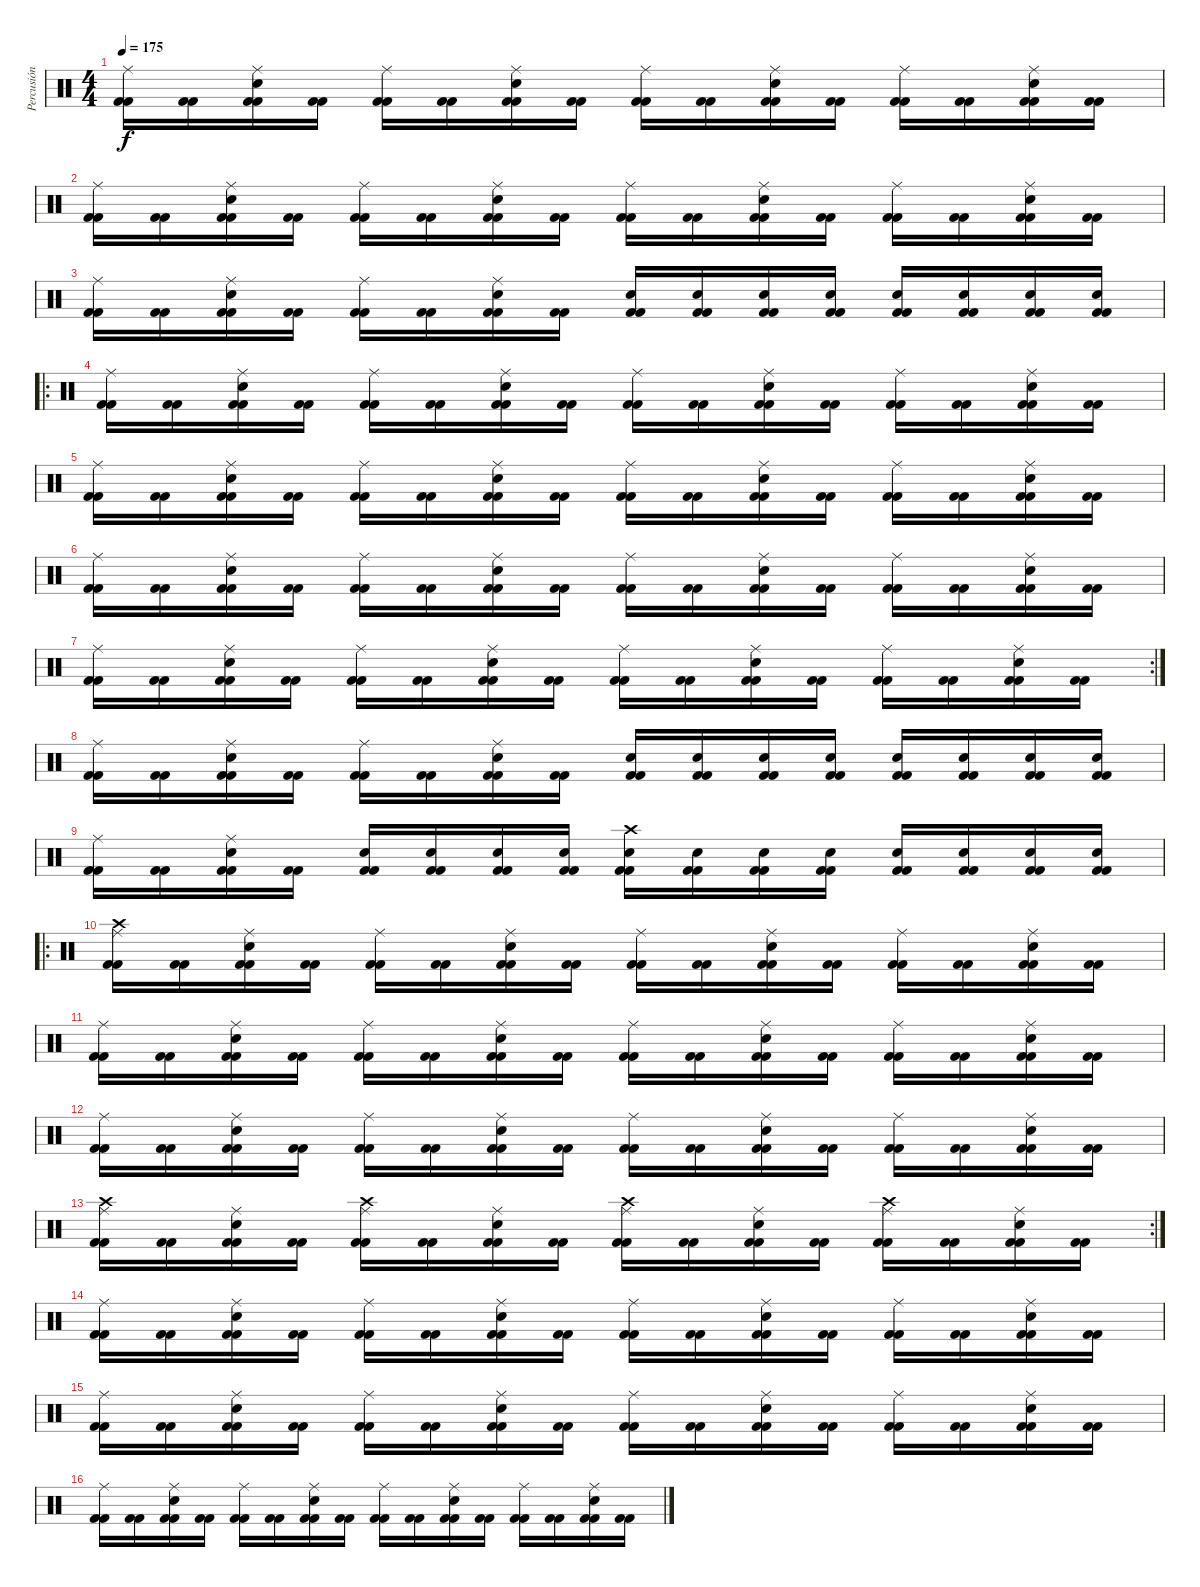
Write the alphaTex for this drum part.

\track ("Percusión" "Percusión") {instrument percussion}
\staff {score}
\articulation defaults
\ts (4 4)
\tempo 175
\clef neutral
\ks c
("Kick (hit) 2" "Kick (hit) 2" "Ride (middle)").16{dy f} ("Kick (hit) 2" "Kick (hit) 2").16 ("Kick (hit) 2" "Kick (hit) 2" "Electric Snare (hit)" "Ride (middle)").16 ("Kick (hit) 2" "Kick (hit) 2").16 ("Kick (hit) 2" "Kick (hit) 2" "Ride (middle)").16 ("Kick (hit) 2" "Kick (hit) 2").16 ("Kick (hit) 2" "Kick (hit) 2" "Electric Snare (hit)" "Ride (middle)").16 ("Kick (hit) 2" "Kick (hit) 2").16 ("Kick (hit) 2" "Kick (hit) 2" "Ride (middle)").16 ("Kick (hit) 2" "Kick (hit) 2").16 ("Kick (hit) 2" "Kick (hit) 2" "Electric Snare (hit)" "Ride (middle)").16 ("Kick (hit) 2" "Kick (hit) 2").16 ("Kick (hit) 2" "Kick (hit) 2" "Ride (middle)").16 ("Kick (hit) 2" "Kick (hit) 2").16 ("Kick (hit) 2" "Kick (hit) 2" "Electric Snare (hit)" "Ride (middle)").16 ("Kick (hit) 2" "Kick (hit) 2").16 |
("Kick (hit) 2" "Kick (hit) 2" "Ride (middle)").16 ("Kick (hit) 2" "Kick (hit) 2").16 ("Kick (hit) 2" "Kick (hit) 2" "Electric Snare (hit)" "Ride (middle)").16 ("Kick (hit) 2" "Kick (hit) 2").16 ("Kick (hit) 2" "Kick (hit) 2" "Ride (middle)").16 ("Kick (hit) 2" "Kick (hit) 2").16 ("Kick (hit) 2" "Kick (hit) 2" "Electric Snare (hit)" "Ride (middle)").16 ("Kick (hit) 2" "Kick (hit) 2").16 ("Kick (hit) 2" "Kick (hit) 2" "Ride (middle)").16 ("Kick (hit) 2" "Kick (hit) 2").16 ("Kick (hit) 2" "Kick (hit) 2" "Electric Snare (hit)" "Ride (middle)").16 ("Kick (hit) 2" "Kick (hit) 2").16 ("Kick (hit) 2" "Kick (hit) 2" "Ride (middle)").16 ("Kick (hit) 2" "Kick (hit) 2").16 ("Kick (hit) 2" "Kick (hit) 2" "Electric Snare (hit)" "Ride (middle)").16 ("Kick (hit) 2" "Kick (hit) 2").16 |
("Kick (hit) 2" "Kick (hit) 2" "Ride (middle)").16 ("Kick (hit) 2" "Kick (hit) 2").16 ("Kick (hit) 2" "Kick (hit) 2" "Electric Snare (hit)" "Ride (middle)").16 ("Kick (hit) 2" "Kick (hit) 2").16 ("Kick (hit) 2" "Kick (hit) 2" "Ride (middle)").16 ("Kick (hit) 2" "Kick (hit) 2").16 ("Kick (hit) 2" "Kick (hit) 2" "Electric Snare (hit)" "Ride (middle)").16 ("Kick (hit) 2" "Kick (hit) 2").16 ("Kick (hit) 2" "Kick (hit) 2" "Electric Snare (hit)").16 ("Kick (hit) 2" "Kick (hit) 2" "Electric Snare (hit)").16 ("Kick (hit) 2" "Kick (hit) 2" "Electric Snare (hit)").16 ("Kick (hit) 2" "Kick (hit) 2" "Electric Snare (hit)").16 ("Kick (hit) 2" "Kick (hit) 2" "Electric Snare (hit)").16 ("Kick (hit) 2" "Kick (hit) 2" "Electric Snare (hit)").16 ("Kick (hit) 2" "Kick (hit) 2" "Electric Snare (hit)").16 ("Kick (hit) 2" "Kick (hit) 2" "Electric Snare (hit)").16 |
\ro
("Kick (hit) 2" "Kick (hit) 2" "Ride (middle)").16 ("Kick (hit) 2" "Kick (hit) 2").16 ("Kick (hit) 2" "Kick (hit) 2" "Electric Snare (hit)" "Ride (middle)").16 ("Kick (hit) 2" "Kick (hit) 2").16 ("Kick (hit) 2" "Kick (hit) 2" "Ride (middle)").16 ("Kick (hit) 2" "Kick (hit) 2").16 ("Kick (hit) 2" "Kick (hit) 2" "Electric Snare (hit)" "Ride (middle)").16 ("Kick (hit) 2" "Kick (hit) 2").16 ("Kick (hit) 2" "Kick (hit) 2" "Ride (middle)").16 ("Kick (hit) 2" "Kick (hit) 2").16 ("Kick (hit) 2" "Kick (hit) 2" "Electric Snare (hit)" "Ride (middle)").16 ("Kick (hit) 2" "Kick (hit) 2").16 ("Kick (hit) 2" "Kick (hit) 2" "Ride (middle)").16 ("Kick (hit) 2" "Kick (hit) 2").16 ("Kick (hit) 2" "Kick (hit) 2" "Electric Snare (hit)" "Ride (middle)").16 ("Kick (hit) 2" "Kick (hit) 2").16 |
("Kick (hit) 2" "Kick (hit) 2" "Ride (middle)").16 ("Kick (hit) 2" "Kick (hit) 2").16 ("Kick (hit) 2" "Kick (hit) 2" "Electric Snare (hit)" "Ride (middle)").16 ("Kick (hit) 2" "Kick (hit) 2").16 ("Kick (hit) 2" "Kick (hit) 2" "Ride (middle)").16 ("Kick (hit) 2" "Kick (hit) 2").16 ("Kick (hit) 2" "Kick (hit) 2" "Electric Snare (hit)" "Ride (middle)").16 ("Kick (hit) 2" "Kick (hit) 2").16 ("Kick (hit) 2" "Kick (hit) 2" "Ride (middle)").16 ("Kick (hit) 2" "Kick (hit) 2").16 ("Kick (hit) 2" "Kick (hit) 2" "Electric Snare (hit)" "Ride (middle)").16 ("Kick (hit) 2" "Kick (hit) 2").16 ("Kick (hit) 2" "Kick (hit) 2" "Ride (middle)").16 ("Kick (hit) 2" "Kick (hit) 2").16 ("Kick (hit) 2" "Kick (hit) 2" "Electric Snare (hit)" "Ride (middle)").16 ("Kick (hit) 2" "Kick (hit) 2").16 |
("Kick (hit) 2" "Kick (hit) 2" "Ride (middle)").16 ("Kick (hit) 2" "Kick (hit) 2").16 ("Kick (hit) 2" "Kick (hit) 2" "Electric Snare (hit)" "Ride (middle)").16 ("Kick (hit) 2" "Kick (hit) 2").16 ("Kick (hit) 2" "Kick (hit) 2" "Ride (middle)").16 ("Kick (hit) 2" "Kick (hit) 2").16 ("Kick (hit) 2" "Kick (hit) 2" "Electric Snare (hit)" "Ride (middle)").16 ("Kick (hit) 2" "Kick (hit) 2").16 ("Kick (hit) 2" "Kick (hit) 2" "Ride (middle)").16 ("Kick (hit) 2" "Kick (hit) 2").16 ("Kick (hit) 2" "Kick (hit) 2" "Electric Snare (hit)" "Ride (middle)").16 ("Kick (hit) 2" "Kick (hit) 2").16 ("Kick (hit) 2" "Kick (hit) 2" "Ride (middle)").16 ("Kick (hit) 2" "Kick (hit) 2").16 ("Kick (hit) 2" "Kick (hit) 2" "Electric Snare (hit)" "Ride (middle)").16 ("Kick (hit) 2" "Kick (hit) 2").16 |
\rc 2
("Kick (hit) 2" "Kick (hit) 2" "Ride (middle)").16 ("Kick (hit) 2" "Kick (hit) 2").16 ("Kick (hit) 2" "Kick (hit) 2" "Electric Snare (hit)" "Ride (middle)").16 ("Kick (hit) 2" "Kick (hit) 2").16 ("Kick (hit) 2" "Kick (hit) 2" "Ride (middle)").16 ("Kick (hit) 2" "Kick (hit) 2").16 ("Kick (hit) 2" "Kick (hit) 2" "Electric Snare (hit)" "Ride (middle)").16 ("Kick (hit) 2" "Kick (hit) 2").16 ("Kick (hit) 2" "Kick (hit) 2" "Ride (middle)").16 ("Kick (hit) 2" "Kick (hit) 2").16 ("Kick (hit) 2" "Kick (hit) 2" "Electric Snare (hit)" "Ride (middle)").16 ("Kick (hit) 2" "Kick (hit) 2").16 ("Kick (hit) 2" "Kick (hit) 2" "Ride (middle)").16 ("Kick (hit) 2" "Kick (hit) 2").16 ("Kick (hit) 2" "Kick (hit) 2" "Electric Snare (hit)" "Ride (middle)").16 ("Kick (hit) 2" "Kick (hit) 2").16 |
("Kick (hit) 2" "Kick (hit) 2" "Ride (middle)").16 ("Kick (hit) 2" "Kick (hit) 2").16 ("Kick (hit) 2" "Kick (hit) 2" "Electric Snare (hit)" "Ride (middle)").16 ("Kick (hit) 2" "Kick (hit) 2").16 ("Kick (hit) 2" "Kick (hit) 2" "Ride (middle)").16 ("Kick (hit) 2" "Kick (hit) 2").16 ("Kick (hit) 2" "Kick (hit) 2" "Electric Snare (hit)" "Ride (middle)").16 ("Kick (hit) 2" "Kick (hit) 2").16 ("Kick (hit) 2" "Kick (hit) 2" "Electric Snare (hit)").16 ("Kick (hit) 2" "Kick (hit) 2" "Electric Snare (hit)").16 ("Kick (hit) 2" "Kick (hit) 2" "Electric Snare (hit)").16 ("Kick (hit) 2" "Kick (hit) 2" "Electric Snare (hit)").16 ("Kick (hit) 2" "Kick (hit) 2" "Electric Snare (hit)").16 ("Kick (hit) 2" "Kick (hit) 2" "Electric Snare (hit)").16 ("Kick (hit) 2" "Kick (hit) 2" "Electric Snare (hit)").16 ("Kick (hit) 2" "Kick (hit) 2" "Electric Snare (hit)").16 |
("Kick (hit) 2" "Kick (hit) 2" "Ride (middle)").16 ("Kick (hit) 2" "Kick (hit) 2").16 ("Kick (hit) 2" "Kick (hit) 2" "Electric Snare (hit)" "Ride (middle)").16 ("Kick (hit) 2" "Kick (hit) 2").16 ("Kick (hit) 2" "Kick (hit) 2" "Electric Snare (hit)").16 ("Kick (hit) 2" "Kick (hit) 2" "Electric Snare (hit)").16 ("Kick (hit) 2" "Kick (hit) 2" "Electric Snare (hit)").16 ("Kick (hit) 2" "Kick (hit) 2" "Electric Snare (hit)").16 ("Kick (hit) 2" "Kick (hit) 2" "Electric Snare (hit)" "Crash high (hit)").16 ("Kick (hit) 2" "Kick (hit) 2" "Electric Snare (hit)").16 ("Kick (hit) 2" "Kick (hit) 2" "Electric Snare (hit)").16 ("Kick (hit) 2" "Kick (hit) 2" "Electric Snare (hit)").16 ("Kick (hit) 2" "Kick (hit) 2" "Electric Snare (hit)").16 ("Kick (hit) 2" "Kick (hit) 2" "Electric Snare (hit)").16 ("Kick (hit) 2" "Kick (hit) 2" "Electric Snare (hit)").16 ("Kick (hit) 2" "Kick (hit) 2" "Electric Snare (hit)").16 |
\ro
("Kick (hit) 2" "Kick (hit) 2" "Ride (middle)" "Crash high (hit)").16 ("Kick (hit) 2" "Kick (hit) 2").16 ("Kick (hit) 2" "Kick (hit) 2" "Electric Snare (hit)" "Ride (middle)").16 ("Kick (hit) 2" "Kick (hit) 2").16 ("Kick (hit) 2" "Kick (hit) 2" "Ride (middle)").16 ("Kick (hit) 2" "Kick (hit) 2").16 ("Kick (hit) 2" "Kick (hit) 2" "Electric Snare (hit)" "Ride (middle)").16 ("Kick (hit) 2" "Kick (hit) 2").16 ("Kick (hit) 2" "Kick (hit) 2" "Ride (middle)").16 ("Kick (hit) 2" "Kick (hit) 2").16 ("Kick (hit) 2" "Kick (hit) 2" "Electric Snare (hit)" "Ride (middle)").16 ("Kick (hit) 2" "Kick (hit) 2").16 ("Kick (hit) 2" "Kick (hit) 2" "Ride (middle)").16 ("Kick (hit) 2" "Kick (hit) 2").16 ("Kick (hit) 2" "Kick (hit) 2" "Electric Snare (hit)" "Ride (middle)").16 ("Kick (hit) 2" "Kick (hit) 2").16 |
("Kick (hit) 2" "Kick (hit) 2" "Ride (middle)").16 ("Kick (hit) 2" "Kick (hit) 2").16 ("Kick (hit) 2" "Kick (hit) 2" "Electric Snare (hit)" "Ride (middle)").16 ("Kick (hit) 2" "Kick (hit) 2").16 ("Kick (hit) 2" "Kick (hit) 2" "Ride (middle)").16 ("Kick (hit) 2" "Kick (hit) 2").16 ("Kick (hit) 2" "Kick (hit) 2" "Electric Snare (hit)" "Ride (middle)").16 ("Kick (hit) 2" "Kick (hit) 2").16 ("Kick (hit) 2" "Kick (hit) 2" "Ride (middle)").16 ("Kick (hit) 2" "Kick (hit) 2").16 ("Kick (hit) 2" "Kick (hit) 2" "Electric Snare (hit)" "Ride (middle)").16 ("Kick (hit) 2" "Kick (hit) 2").16 ("Kick (hit) 2" "Kick (hit) 2" "Ride (middle)").16 ("Kick (hit) 2" "Kick (hit) 2").16 ("Kick (hit) 2" "Kick (hit) 2" "Electric Snare (hit)" "Ride (middle)").16 ("Kick (hit) 2" "Kick (hit) 2").16 |
("Kick (hit) 2" "Kick (hit) 2" "Ride (middle)").16 ("Kick (hit) 2" "Kick (hit) 2").16 ("Kick (hit) 2" "Kick (hit) 2" "Electric Snare (hit)" "Ride (middle)").16 ("Kick (hit) 2" "Kick (hit) 2").16 ("Kick (hit) 2" "Kick (hit) 2" "Ride (middle)").16 ("Kick (hit) 2" "Kick (hit) 2").16 ("Kick (hit) 2" "Kick (hit) 2" "Electric Snare (hit)" "Ride (middle)").16 ("Kick (hit) 2" "Kick (hit) 2").16 ("Kick (hit) 2" "Kick (hit) 2" "Ride (middle)").16 ("Kick (hit) 2" "Kick (hit) 2").16 ("Kick (hit) 2" "Kick (hit) 2" "Electric Snare (hit)" "Ride (middle)").16 ("Kick (hit) 2" "Kick (hit) 2").16 ("Kick (hit) 2" "Kick (hit) 2" "Ride (middle)").16 ("Kick (hit) 2" "Kick (hit) 2").16 ("Kick (hit) 2" "Kick (hit) 2" "Electric Snare (hit)" "Ride (middle)").16 ("Kick (hit) 2" "Kick (hit) 2").16 |
\rc 2
("Kick (hit) 2" "Kick (hit) 2" "Ride (middle)" "Crash high (hit)").16 ("Kick (hit) 2" "Kick (hit) 2").16 ("Kick (hit) 2" "Kick (hit) 2" "Electric Snare (hit)" "Ride (middle)").16 ("Kick (hit) 2" "Kick (hit) 2").16 ("Kick (hit) 2" "Kick (hit) 2" "Ride (middle)" "Crash high (hit)").16 ("Kick (hit) 2" "Kick (hit) 2").16 ("Kick (hit) 2" "Kick (hit) 2" "Electric Snare (hit)" "Ride (middle)").16 ("Kick (hit) 2" "Kick (hit) 2").16 ("Kick (hit) 2" "Kick (hit) 2" "Ride (middle)" "Crash high (hit)").16 ("Kick (hit) 2" "Kick (hit) 2").16 ("Kick (hit) 2" "Kick (hit) 2" "Electric Snare (hit)" "Ride (middle)").16 ("Kick (hit) 2" "Kick (hit) 2").16 ("Kick (hit) 2" "Kick (hit) 2" "Ride (middle)" "Crash high (hit)").16 ("Kick (hit) 2" "Kick (hit) 2").16 ("Kick (hit) 2" "Kick (hit) 2" "Electric Snare (hit)" "Ride (middle)").16 ("Kick (hit) 2" "Kick (hit) 2").16 |
("Kick (hit) 2" "Kick (hit) 2" "Ride (middle)").16 ("Kick (hit) 2" "Kick (hit) 2").16 ("Kick (hit) 2" "Kick (hit) 2" "Electric Snare (hit)" "Ride (middle)").16 ("Kick (hit) 2" "Kick (hit) 2").16 ("Kick (hit) 2" "Kick (hit) 2" "Ride (middle)").16 ("Kick (hit) 2" "Kick (hit) 2").16 ("Kick (hit) 2" "Kick (hit) 2" "Electric Snare (hit)" "Ride (middle)").16 ("Kick (hit) 2" "Kick (hit) 2").16 ("Kick (hit) 2" "Kick (hit) 2" "Ride (middle)").16 ("Kick (hit) 2" "Kick (hit) 2").16 ("Kick (hit) 2" "Kick (hit) 2" "Electric Snare (hit)" "Ride (middle)").16 ("Kick (hit) 2" "Kick (hit) 2").16 ("Kick (hit) 2" "Kick (hit) 2" "Ride (middle)").16 ("Kick (hit) 2" "Kick (hit) 2").16 ("Kick (hit) 2" "Kick (hit) 2" "Electric Snare (hit)" "Ride (middle)").16 ("Kick (hit) 2" "Kick (hit) 2").16 |
("Kick (hit) 2" "Kick (hit) 2" "Ride (middle)").16 ("Kick (hit) 2" "Kick (hit) 2").16 ("Kick (hit) 2" "Kick (hit) 2" "Electric Snare (hit)" "Ride (middle)").16 ("Kick (hit) 2" "Kick (hit) 2").16 ("Kick (hit) 2" "Kick (hit) 2" "Ride (middle)").16 ("Kick (hit) 2" "Kick (hit) 2").16 ("Kick (hit) 2" "Kick (hit) 2" "Electric Snare (hit)" "Ride (middle)").16 ("Kick (hit) 2" "Kick (hit) 2").16 ("Kick (hit) 2" "Kick (hit) 2" "Ride (middle)").16 ("Kick (hit) 2" "Kick (hit) 2").16 ("Kick (hit) 2" "Kick (hit) 2" "Electric Snare (hit)" "Ride (middle)").16 ("Kick (hit) 2" "Kick (hit) 2").16 ("Kick (hit) 2" "Kick (hit) 2" "Ride (middle)").16 ("Kick (hit) 2" "Kick (hit) 2").16 ("Kick (hit) 2" "Kick (hit) 2" "Electric Snare (hit)" "Ride (middle)").16 ("Kick (hit) 2" "Kick (hit) 2").16 |
("Kick (hit) 2" "Kick (hit) 2" "Ride (middle)").16 ("Kick (hit) 2" "Kick (hit) 2").16 ("Kick (hit) 2" "Kick (hit) 2" "Electric Snare (hit)" "Ride (middle)").16 ("Kick (hit) 2" "Kick (hit) 2").16 ("Kick (hit) 2" "Kick (hit) 2" "Ride (middle)").16 ("Kick (hit) 2" "Kick (hit) 2").16 ("Kick (hit) 2" "Kick (hit) 2" "Electric Snare (hit)" "Ride (middle)").16 ("Kick (hit) 2" "Kick (hit) 2").16 ("Kick (hit) 2" "Kick (hit) 2" "Ride (middle)").16 ("Kick (hit) 2" "Kick (hit) 2").16 ("Kick (hit) 2" "Kick (hit) 2" "Electric Snare (hit)" "Ride (middle)").16 ("Kick (hit) 2" "Kick (hit) 2").16 ("Kick (hit) 2" "Kick (hit) 2" "Ride (middle)").16 ("Kick (hit) 2" "Kick (hit) 2").16 ("Kick (hit) 2" "Kick (hit) 2" "Electric Snare (hit)" "Ride (middle)").16 ("Kick (hit) 2" "Kick (hit) 2").16
